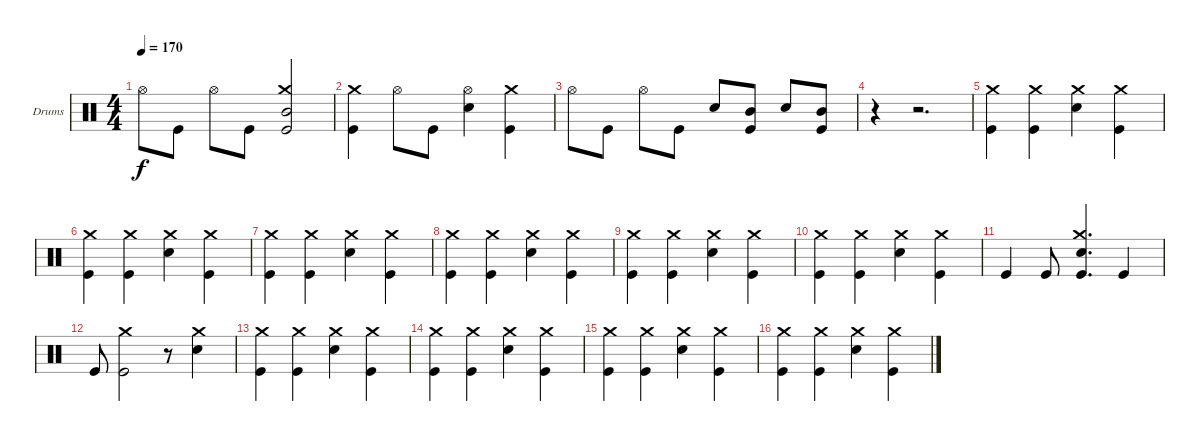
\defaultSystemsLayout 4
\bracketExtendMode groupsimilarinstruments
\firstSystemTrackNameOrientation horizontal
\otherSystemsTrackNameOrientation horizontal
\track ("Drumkit" "Drums") {instrument percussion}
\staff {score}
\articulation defaults
\ts (4 4)
\tempo 170
\clef neutral
\ks c "Hi-Hat (open)".8{dy f} "Kick (hit)".8 "Hi-Hat (open)".8 "Kick (hit)".8
("Crash medium (hit)" "Mid Tom (hit)" "Kick (hit)").2 |
("Crash medium (hit)" "Kick (hit)").4 "Hi-Hat (open)".8 "Kick (hit)".8 ("Hi-Hat (open)" "Snare (hit) 2").4 ("Crash medium (hit)" "Kick (hit)").4 |
"Hi-Hat (open)".8 "Kick (hit)".8 "Hi-Hat (open)".8 "Kick (hit)".8 "Snare (hit) 2".8 ("Mid Tom (hit)" "Kick (hit)").8 "Snare (hit) 2".8 ("Mid Tom (hit)" "Kick (hit)").8 |
r.4 r.2{d} |
("Crash medium (hit)" "Kick (hit)").4 ("Crash medium (hit)" "Kick (hit)").4 ("Crash medium (hit)" "Snare (hit) 2").4 ("Crash medium (hit)" "Kick (hit)").4 |
("Crash medium (hit)" "Kick (hit)").4 ("Crash medium (hit)" "Kick (hit)").4 ("Crash medium (hit)" "Snare (hit) 2").4 ("Crash medium (hit)" "Kick (hit)").4 |
("Crash medium (hit)" "Kick (hit)").4 ("Crash medium (hit)" "Kick (hit)").4 ("Crash medium (hit)" "Snare (hit) 2").4 ("Crash medium (hit)" "Kick (hit)").4 |
("Crash medium (hit)" "Kick (hit)").4 ("Crash medium (hit)" "Kick (hit)").4 ("Crash medium (hit)" "Snare (hit) 2").4 ("Crash medium (hit)" "Kick (hit)").4 |
("Crash medium (hit)" "Kick (hit)").4 ("Crash medium (hit)" "Kick (hit)").4 ("Crash medium (hit)" "Snare (hit) 2").4 ("Crash medium (hit)" "Kick (hit)").4 |
("Crash medium (hit)" "Kick (hit)").4 ("Crash medium (hit)" "Kick (hit)").4 ("Crash medium (hit)" "Snare (hit) 2").4 ("Crash medium (hit)" "Kick (hit)").4 |
"Kick (hit)".4 "Kick (hit)".8 ("Crash medium (hit)" "Snare (hit) 2" "Kick (hit)").4{d} "Kick (hit)".4 |
"Kick (hit)".8 ("Crash medium (hit)" "Kick (hit)").2 r.8 ("Crash medium (hit)" "Snare (hit) 2").4 |
("Crash medium (hit)" "Kick (hit)").4 ("Crash medium (hit)" "Kick (hit)").4 ("Crash medium (hit)" "Snare (hit) 2").4 ("Crash medium (hit)" "Kick (hit)").4 |
("Crash medium (hit)" "Kick (hit)").4 ("Crash medium (hit)" "Kick (hit)").4 ("Crash medium (hit)" "Snare (hit) 2").4 ("Crash medium (hit)" "Kick (hit)").4 |
("Crash medium (hit)" "Kick (hit)").4 ("Crash medium (hit)" "Kick (hit)").4 ("Crash medium (hit)" "Snare (hit) 2").4 ("Crash medium (hit)" "Kick (hit)").4 |
("Crash medium (hit)" "Kick (hit)").4 ("Crash medium (hit)" "Kick (hit)").4 ("Crash medium (hit)" "Snare (hit) 2").4 ("Crash medium (hit)" "Kick (hit)").4
